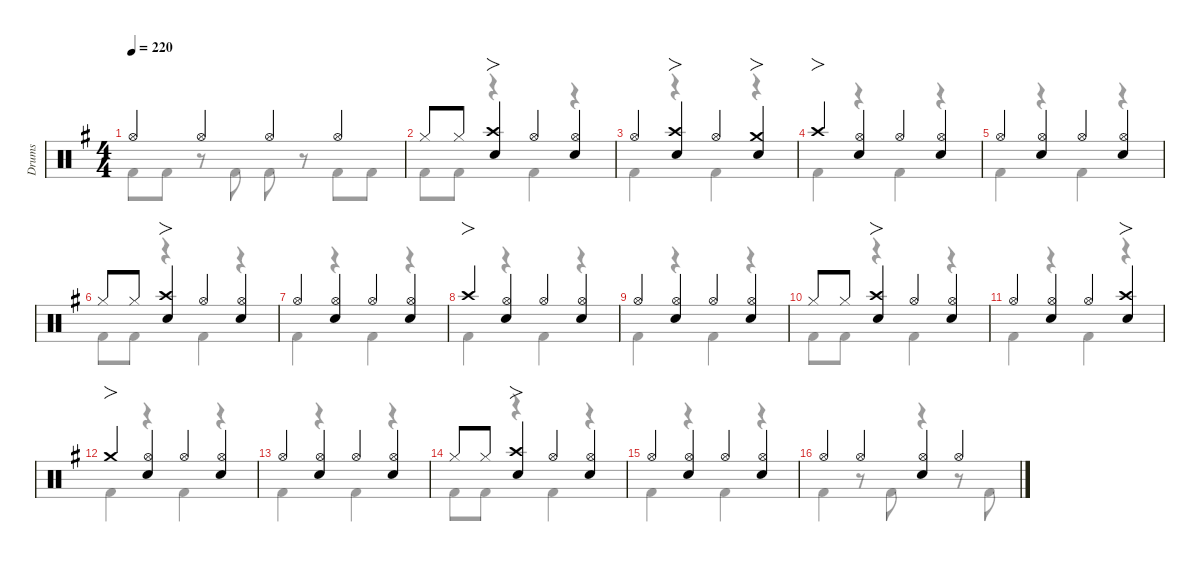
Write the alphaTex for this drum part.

\hideDynamics
\bracketExtendMode nobrackets
\multiBarRest
\otherSystemsTrackNameOrientation horizontal
\track ("Drums" "Drums") {defaultSystemsLayout 4 multiBarRest instrument percussion}
\staff {score}
\articulation defaults
\voice
\ts (4 4)
\tempo 220
\clef neutral
\scale
0.977474
\ks g "Hi-Hat (open)"{acc forcenatural}.4{dy f beam Up} "Hi-Hat (open)"{acc forcenatural}.4{beam Up} "Hi-Hat (open)"{acc forcenatural}.4{beam Up} "Hi-Hat (open)"{acc forcenatural}.4{beam Up}
|
\scale
0.977474 "Hi-Hat (closed)"{acc forcenatural}.8{beam Up} "Hi-Hat (closed)"{acc forcenatural}.8{dy mf beam Up} ("Crash high (hit)"{acc forcenatural} "Snare (hit) 2"{acc forcenatural}).4{fo dy f beam Up} "Hi-Hat (open)"{acc forcenatural}.4{beam Up} ("Hi-Hat (open)"{acc forcenatural} "Snare (hit) 2"{acc forcenatural}).4{beam Up} |
\scale
0.977474 "Hi-Hat (open)"{acc forcenatural}.4{beam Up} ("Snare (hit) 2"{acc forcenatural} "Crash high (hit)"{acc forcenatural}).4{fo beam Up} "Hi-Hat (open)"{acc forcenatural}.4{beam Up} ("Snare (hit) 2"{acc forcenatural} "Crash medium (hit)"{acc forcenatural}).4{fo beam Up} |
\scale
1.06758 "Crash high (hit)"{acc forcenatural}.4{fo beam Up} ("Hi-Hat (open)"{acc forcenatural} "Snare (hit) 2"{acc forcenatural}).4{beam Up} "Hi-Hat (open)"{acc forcenatural}.4{beam Up} ("Hi-Hat (open)"{acc forcenatural} "Snare (hit) 2"{acc forcenatural}).4{beam Up} |
\scale
0.977474 "Hi-Hat (open)"{acc forcenatural}.4{beam Up} ("Hi-Hat (open)"{acc forcenatural} "Snare (hit) 2"{acc forcenatural}).4{beam Up} "Hi-Hat (open)"{acc forcenatural}.4{beam Up} ("Hi-Hat (open)"{acc forcenatural} "Snare (hit) 2"{acc forcenatural}).4{beam Up} |
\scale
0.977474 "Hi-Hat (closed)"{acc forcenatural}.8{beam Up} "Hi-Hat (closed)"{acc forcenatural}.8{dy mf beam Up} ("Crash high (hit)"{acc forcenatural} "Snare (hit) 2"{acc forcenatural}).4{fo dy f beam Up} "Hi-Hat (open)"{acc forcenatural}.4{beam Up} ("Hi-Hat (open)"{acc forcenatural} "Snare (hit) 2"{acc forcenatural}).4{beam Up} |
\scale
0.977474 "Hi-Hat (open)"{acc forcenatural}.4{beam Up} ("Hi-Hat (open)"{acc forcenatural} "Snare (hit) 2"{acc forcenatural}).4{beam Up} "Hi-Hat (open)"{acc forcenatural}.4{beam Up} ("Hi-Hat (open)"{acc forcenatural} "Snare (hit) 2"{acc forcenatural}).4{beam Up} |
\scale
1.06758 "Crash high (hit)"{acc forcenatural}.4{fo beam Up} ("Hi-Hat (open)"{acc forcenatural} "Snare (hit) 2"{acc forcenatural}).4{beam Up} "Hi-Hat (open)"{acc forcenatural}.4{beam Up} ("Hi-Hat (open)"{acc forcenatural} "Snare (hit) 2"{acc forcenatural}).4{beam Up} |
\scale
0.977474 "Hi-Hat (open)"{acc forcenatural}.4{beam Up} ("Hi-Hat (open)"{acc forcenatural} "Snare (hit) 2"{acc forcenatural}).4{beam Up} "Hi-Hat (open)"{acc forcenatural}.4{beam Up} ("Hi-Hat (open)"{acc forcenatural} "Snare (hit) 2"{acc forcenatural}).4{beam Up} |
\scale
0.977474 "Hi-Hat (closed)"{acc forcenatural}.8{beam Up} "Hi-Hat (closed)"{acc forcenatural}.8{dy mf beam Up} ("Crash high (hit)"{acc forcenatural} "Snare (hit) 2"{acc forcenatural}).4{fo dy f beam Up} "Hi-Hat (open)"{acc forcenatural}.4{beam Up} ("Hi-Hat (open)"{acc forcenatural} "Snare (hit) 2"{acc forcenatural}).4{beam Up} |
\scale
0.977474 "Hi-Hat (open)"{acc forcenatural}.4{beam Up} ("Hi-Hat (open)"{acc forcenatural} "Snare (hit) 2"{acc forcenatural}).4{beam Up} "Hi-Hat (open)"{acc forcenatural}.4{beam Up} ("Crash high (hit)"{acc forcenatural} "Snare (hit) 2"{acc forcenatural}).4{fo beam Up} |
\scale
1.06758 "Crash medium (hit)"{acc forcenatural}.4{fo beam Up} ("Hi-Hat (open)"{acc forcenatural} "Snare (hit) 2"{acc forcenatural}).4{beam Up} "Hi-Hat (open)"{acc forcenatural}.4{beam Up} ("Hi-Hat (open)"{acc forcenatural} "Snare (hit) 2"{acc forcenatural}).4{beam Up} |
\scale
0.977474 "Hi-Hat (open)"{acc forcenatural}.4{beam Up} ("Hi-Hat (open)"{acc forcenatural} "Snare (hit) 2"{acc forcenatural}).4{beam Up} "Hi-Hat (open)"{acc forcenatural}.4{beam Up} ("Hi-Hat (open)"{acc forcenatural} "Snare (hit) 2"{acc forcenatural}).4{beam Up} |
\scale
0.977474 "Hi-Hat (closed)"{acc forcenatural}.8{beam Up} "Hi-Hat (closed)"{acc forcenatural}.8{dy mf beam Up} ("Crash high (hit)"{acc forcenatural} "Snare (hit) 2"{acc forcenatural}).4{fo dy f beam Up} "Hi-Hat (open)"{acc forcenatural}.4{beam Up} ("Hi-Hat (open)"{acc forcenatural} "Snare (hit) 2"{acc forcenatural}).4{beam Up} |
\scale
0.977474 "Hi-Hat (open)"{acc forcenatural}.4{beam Up} ("Hi-Hat (open)"{acc forcenatural} "Snare (hit) 2"{acc forcenatural}).4{beam Up} "Hi-Hat (open)"{acc forcenatural}.4{beam Up} ("Hi-Hat (open)"{acc forcenatural} "Snare (hit) 2"{acc forcenatural}).4{beam Up} |
\scale
1.06316 "Hi-Hat (open)"{acc forcenatural}.4{beam Up} "Hi-Hat (open)"{acc forcenatural}.4{beam Up} ("Snare (hit) 2"{acc forcenatural} "Hi-Hat (open)"{acc forcenatural}).4{beam Up} "Hi-Hat (open)"{acc forcenatural}.4{beam Up}
\voice
\clef neutral
\ottava regular
\simile none
\scale
0.977474
\ks g "Kick (hit) 2"{acc forcenatural}.8{dy f beam Down} "Kick (hit) 2"{acc forcenatural}.8{beam Down}
r.8{beam Down} "Kick (hit) 2"{acc forcenatural}.8{beam Down} "Kick (hit) 2"{acc forcenatural}.8{beam Down} r.8{beam Down} "Kick (hit) 2"{acc forcenatural}.8{beam Down} "Kick (hit) 2"{acc forcenatural}.8{beam Down} |
\scale
0.977474 "Kick (hit) 2"{acc forcenatural}.8{beam Down} "Kick (hit) 2"{acc forcenatural}.8{beam Down} r.4{beam Down} "Kick (hit) 2"{acc forcenatural}.4{beam Down} r.4{beam Down} |
\scale
0.977474 "Kick (hit) 2"{acc forcenatural}.4{beam Down} r.4{beam Down} "Kick (hit) 2"{acc forcenatural}.4{beam Down} r.4{beam Down} |
\scale
1.06758 "Kick (hit) 2"{acc forcenatural}.4{beam Down} r.4{beam Down} "Kick (hit) 2"{acc forcenatural}.4{beam Down} r.4{beam Down} |
\scale
0.977474 "Kick (hit) 2"{acc forcenatural}.4{beam Down} r.4{beam Down} "Kick (hit) 2"{acc forcenatural}.4{beam Down} r.4{beam Down} |
\scale
0.977474 "Kick (hit) 2"{acc forcenatural}.8{beam Down} "Kick (hit) 2"{acc forcenatural}.8{beam Down} r.4{beam Down} "Kick (hit) 2"{acc forcenatural}.4{beam Down} r.4{beam Down} |
\scale
0.977474 "Kick (hit) 2"{acc forcenatural}.4{beam Down} r.4{beam Down} "Kick (hit) 2"{acc forcenatural}.4{beam Down} r.4{beam Down} |
\scale
1.06758 "Kick (hit) 2"{acc forcenatural}.4{beam Down} r.4{beam Down} "Kick (hit) 2"{acc forcenatural}.4{beam Down} r.4{beam Down} |
\scale
0.977474 "Kick (hit) 2"{acc forcenatural}.4{beam Down} r.4{beam Down} "Kick (hit) 2"{acc forcenatural}.4{beam Down} r.4{beam Down} |
\scale
0.977474 "Kick (hit) 2"{acc forcenatural}.8{beam Down} "Kick (hit) 2"{acc forcenatural}.8{beam Down} r.4{beam Down} "Kick (hit) 2"{acc forcenatural}.4{beam Down} r.4{beam Down} |
\scale
0.977474 "Kick (hit) 2"{acc forcenatural}.4{beam Down} r.4{beam Down} "Kick (hit) 2"{acc forcenatural}.4{beam Down} r.4{beam Down} |
\scale
1.06758 "Kick (hit) 2"{acc forcenatural}.4{beam Down} r.4{beam Down} "Kick (hit) 2"{acc forcenatural}.4{beam Down} r.4{beam Down} |
\scale
0.977474 "Kick (hit) 2"{acc forcenatural}.4{beam Down} r.4{beam Down} "Kick (hit) 2"{acc forcenatural}.4{beam Down} r.4{beam Down} |
\scale
0.977474 "Kick (hit) 2"{acc forcenatural}.8{beam Down} "Kick (hit) 2"{acc forcenatural}.8{beam Down} r.4{beam Down} "Kick (hit) 2"{acc forcenatural}.4{beam Down} r.4{beam Down} |
\scale
0.977474 "Kick (hit) 2"{acc forcenatural}.4{beam Down} r.4{beam Down} "Kick (hit) 2"{acc forcenatural}.4{beam Down} r.4{beam Down} |
\scale
1.06316 "Kick (hit) 2"{acc forcenatural}.4{beam Down} r.8{beam Down} "Kick (hit) 2"{acc forcenatural}.8{beam Down} r.4{beam Down} r.8{beam Down} "Kick (hit) 2"{acc forcenatural}.8{beam Down}
